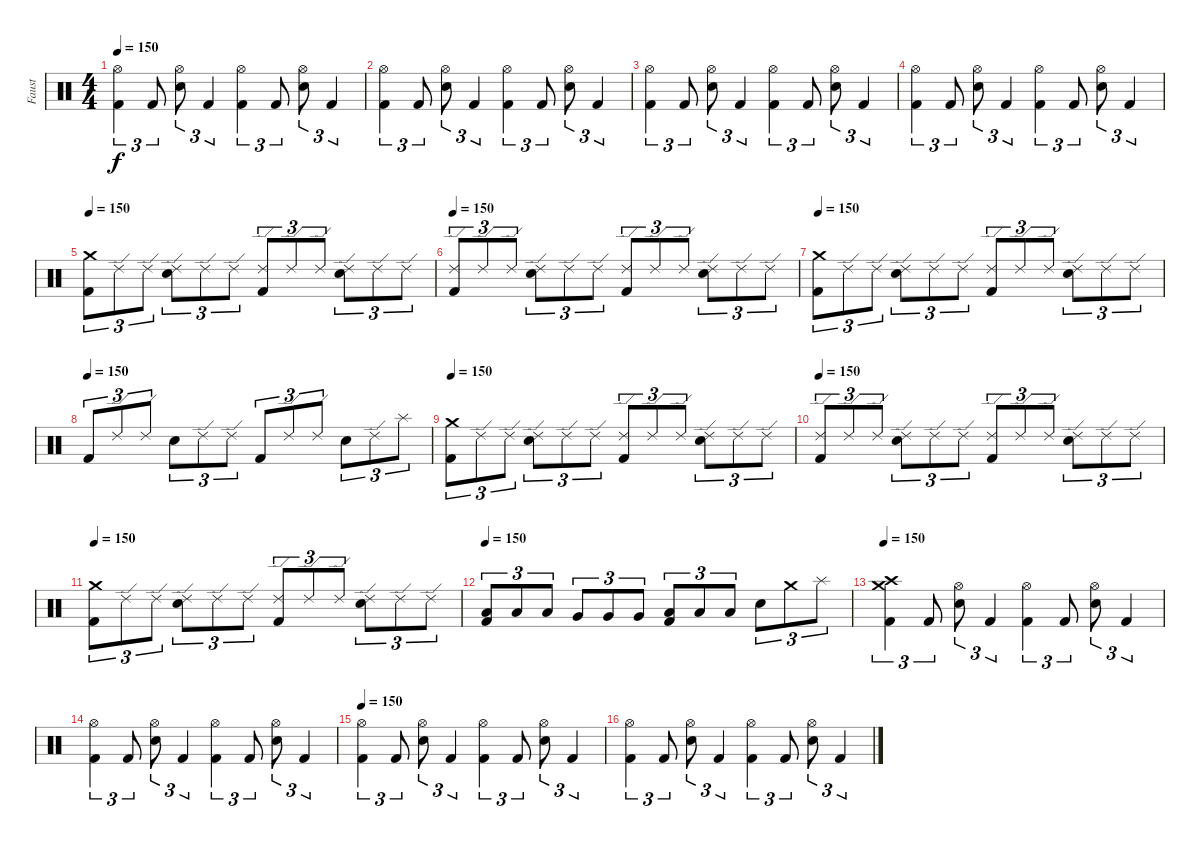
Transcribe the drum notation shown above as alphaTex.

\track ("Faust" "Faust") {instrument percussion}
\staff {score}
\articulation defaults
\ts (4 4)
\tempo 150
\clef neutral
\ks c
("Hi-Hat (open)" "Kick (hit) 2").4{tu (3 2) dy f} "Kick (hit) 2".8{tu (3 2)} ("Hi-Hat (open)" "Electric Snare (hit)").8{tu (3 2)} "Kick (hit) 2".4{tu (3 2)} ("Hi-Hat (open)" "Kick (hit) 2").4{tu (3 2)} "Kick (hit) 2".8{tu (3 2)} ("Hi-Hat (open)" "Electric Snare (hit)").8{tu (3 2)} "Kick (hit) 2".4{tu (3 2)} |
("Hi-Hat (open)" "Kick (hit) 2").4{tu (3 2)} "Kick (hit) 2".8{tu (3 2)} ("Hi-Hat (open)" "Electric Snare (hit)").8{tu (3 2)} "Kick (hit) 2".4{tu (3 2)} ("Hi-Hat (open)" "Kick (hit) 2").4{tu (3 2)} "Kick (hit) 2".8{tu (3 2)} ("Hi-Hat (open)" "Electric Snare (hit)").8{tu (3 2)} "Kick (hit) 2".4{tu (3 2)} |
("Hi-Hat (open)" "Kick (hit) 2").4{tu (3 2)} "Kick (hit) 2".8{tu (3 2)} ("Hi-Hat (open)" "Electric Snare (hit)").8{tu (3 2)} "Kick (hit) 2".4{tu (3 2)} ("Hi-Hat (open)" "Kick (hit) 2").4{tu (3 2)} "Kick (hit) 2".8{tu (3 2)} ("Hi-Hat (open)" "Electric Snare (hit)").8{tu (3 2)} "Kick (hit) 2".4{tu (3 2)} |
("Hi-Hat (open)" "Kick (hit) 2").4{tu (3 2)} "Kick (hit) 2".8{tu (3 2)} ("Hi-Hat (open)" "Electric Snare (hit)").8{tu (3 2)} "Kick (hit) 2".4{tu (3 2)} ("Hi-Hat (open)" "Kick (hit) 2").4{tu (3 2)} "Kick (hit) 2".8{tu (3 2)} ("Hi-Hat (open)" "Electric Snare (hit)").8{tu (3 2)} "Kick (hit) 2".4{tu (3 2)} |
\tempo 150
("Crash medium (hit)" "Kick (hit) 2").8{tu (3 2)} "Ride (edge) 2".8{tu (3 2)} "Ride (edge) 2".8{tu (3 2)} ("Ride (edge) 2" "Electric Snare (hit)").8{tu (3 2)} "Ride (edge) 2".8{tu (3 2)} "Ride (edge) 2".8{tu (3 2)} ("Ride (edge) 2" "Kick (hit) 2").8{tu (3 2)} "Ride (edge) 2".8{tu (3 2)} "Ride (edge) 2".8{tu (3 2)} ("Ride (edge) 2" "Electric Snare (hit)").8{tu (3 2)} "Ride (edge) 2".8{tu (3 2)} "Ride (edge) 2".8{tu (3 2)} |
\tempo 150
("Ride (edge) 2" "Kick (hit) 2").8{tu (3 2)} "Ride (edge) 2".8{tu (3 2)} "Ride (edge) 2".8{tu (3 2)} ("Ride (edge) 2" "Electric Snare (hit)").8{tu (3 2)} "Ride (edge) 2".8{tu (3 2)} "Ride (edge) 2".8{tu (3 2)} ("Ride (edge) 2" "Kick (hit) 2").8{tu (3 2)} "Ride (edge) 2".8{tu (3 2)} "Ride (edge) 2".8{tu (3 2)} ("Ride (edge) 2" "Electric Snare (hit)").8{tu (3 2)} "Ride (edge) 2".8{tu (3 2)} "Ride (edge) 2".8{tu (3 2)} |
\tempo 150
("Crash medium (hit)" "Kick (hit) 2").8{tu (3 2)} "Ride (edge) 2".8{tu (3 2)} "Ride (edge) 2".8{tu (3 2)} ("Ride (edge) 2" "Electric Snare (hit)").8{tu (3 2)} "Ride (edge) 2".8{tu (3 2)} "Ride (edge) 2".8{tu (3 2)} ("Ride (edge) 2" "Kick (hit) 2").8{tu (3 2)} "Ride (edge) 2".8{tu (3 2)} "Ride (edge) 2".8{tu (3 2)} ("Ride (edge) 2" "Electric Snare (hit)").8{tu (3 2)} "Ride (edge) 2".8{tu (3 2)} "Ride (edge) 2".8{tu (3 2)} |
\tempo (150)
"Kick (hit) 2".8{tu (3 2)} "Ride (edge) 2".8{tu (3 2)} "Ride (edge) 2".8{tu (3 2)} "Electric Snare (hit)".8{tu (3 2)} "Ride (edge) 2".8{tu (3 2)} "Ride (edge) 2".8{tu (3 2)} "Kick (hit) 2".8{tu (3 2)} "Ride (edge) 2".8{tu (3 2)} "Ride (edge) 2".8{tu (3 2)} "Electric Snare (hit)".8{tu (3 2)} "Ride (edge) 2".8{tu (3 2)} "Splash (hit)".8{tu (3 2)} |
\tempo 150
("Crash medium (hit)" "Kick (hit) 2").8{tu (3 2)} "Ride (edge) 2".8{tu (3 2)} "Ride (edge) 2".8{tu (3 2)} ("Ride (edge) 2" "Electric Snare (hit)").8{tu (3 2)} "Ride (edge) 2".8{tu (3 2)} "Ride (edge) 2".8{tu (3 2)} ("Ride (edge) 2" "Kick (hit) 2").8{tu (3 2)} "Ride (edge) 2".8{tu (3 2)} "Ride (edge) 2".8{tu (3 2)} ("Ride (edge) 2" "Electric Snare (hit)").8{tu (3 2)} "Ride (edge) 2".8{tu (3 2)} "Ride (edge) 2".8{tu (3 2)} |
\tempo 150
("Ride (edge) 2" "Kick (hit) 2").8{tu (3 2)} "Ride (edge) 2".8{tu (3 2)} "Ride (edge) 2".8{tu (3 2)} ("Ride (edge) 2" "Electric Snare (hit)").8{tu (3 2)} "Ride (edge) 2".8{tu (3 2)} "Ride (edge) 2".8{tu (3 2)} ("Ride (edge) 2" "Kick (hit) 2").8{tu (3 2)} "Ride (edge) 2".8{tu (3 2)} "Ride (edge) 2".8{tu (3 2)} ("Ride (edge) 2" "Electric Snare (hit)").8{tu (3 2)} "Ride (edge) 2".8{tu (3 2)} "Ride (edge) 2".8{tu (3 2)} |
\tempo 150
("Crash medium (hit)" "Kick (hit) 2").8{tu (3 2)} "Ride (edge) 2".8{tu (3 2)} "Ride (edge) 2".8{tu (3 2)} ("Ride (edge) 2" "Electric Snare (hit)").8{tu (3 2)} "Ride (edge) 2".8{tu (3 2)} "Ride (edge) 2".8{tu (3 2)} ("Ride (edge) 2" "Kick (hit) 2").8{tu (3 2)} "Ride (edge) 2".8{tu (3 2)} "Ride (edge) 2".8{tu (3 2)} ("Ride (edge) 2" "Electric Snare (hit)").8{tu (3 2)} "Ride (edge) 2".8{tu (3 2)} "Ride (edge) 2".8{tu (3 2)} |
\tempo 150
("Low Tom (hit)" "Kick (hit) 2").8{tu (3 2)} "Low Tom (hit)".8{tu (3 2)} "Low Tom (hit)".8{tu (3 2)} "Very Low Tom (hit)".8{tu (3 2)} "Very Low Tom (hit)".8{tu (3 2)} "Very Low Tom (hit)".8{tu (3 2)} ("Low Floor Tom (hit)" "Kick (hit) 2").8{tu (3 2)} "Low Floor Tom (hit)".8{tu (3 2)} "Low Floor Tom (hit)".8{tu (3 2)} "Electric Snare (hit)".8{tu (3 2)} "Crash medium (hit)".8{tu (3 2)} "Splash (hit)".8{tu (3 2)} |
\tempo 150
("Crash high (hit)" "Crash medium (hit)" "Kick (hit) 2").4{tu (3 2)} "Kick (hit) 2".8{tu (3 2)} ("Hi-Hat (open)" "Electric Snare (hit)").8{tu (3 2)} "Kick (hit) 2".4{tu (3 2)} ("Hi-Hat (open)" "Kick (hit) 2").4{tu (3 2)} "Kick (hit) 2".8{tu (3 2)} ("Hi-Hat (open)" "Electric Snare (hit)").8{tu (3 2)} "Kick (hit) 2".4{tu (3 2)} |
("Hi-Hat (open)" "Kick (hit) 2").4{tu (3 2)} "Kick (hit) 2".8{tu (3 2)} ("Hi-Hat (open)" "Electric Snare (hit)").8{tu (3 2)} "Kick (hit) 2".4{tu (3 2)} ("Hi-Hat (open)" "Kick (hit) 2").4{tu (3 2)} "Kick (hit) 2".8{tu (3 2)} ("Hi-Hat (open)" "Electric Snare (hit)").8{tu (3 2)} "Kick (hit) 2".4{tu (3 2)} |
\tempo 150
("Hi-Hat (open)" "Kick (hit) 2").4{tu (3 2)} "Kick (hit) 2".8{tu (3 2)} ("Hi-Hat (open)" "Electric Snare (hit)").8{tu (3 2)} "Kick (hit) 2".4{tu (3 2)} ("Hi-Hat (open)" "Kick (hit) 2").4{tu (3 2)} "Kick (hit) 2".8{tu (3 2)} ("Hi-Hat (open)" "Electric Snare (hit)").8{tu (3 2)} "Kick (hit) 2".4{tu (3 2)} |
("Hi-Hat (open)" "Kick (hit) 2").4{tu (3 2)} "Kick (hit) 2".8{tu (3 2)} ("Hi-Hat (open)" "Electric Snare (hit)").8{tu (3 2)} "Kick (hit) 2".4{tu (3 2)} ("Hi-Hat (open)" "Kick (hit) 2").4{tu (3 2)} "Kick (hit) 2".8{tu (3 2)} ("Hi-Hat (open)" "Electric Snare (hit)").8{tu (3 2)} "Kick (hit) 2".4{tu (3 2)}
